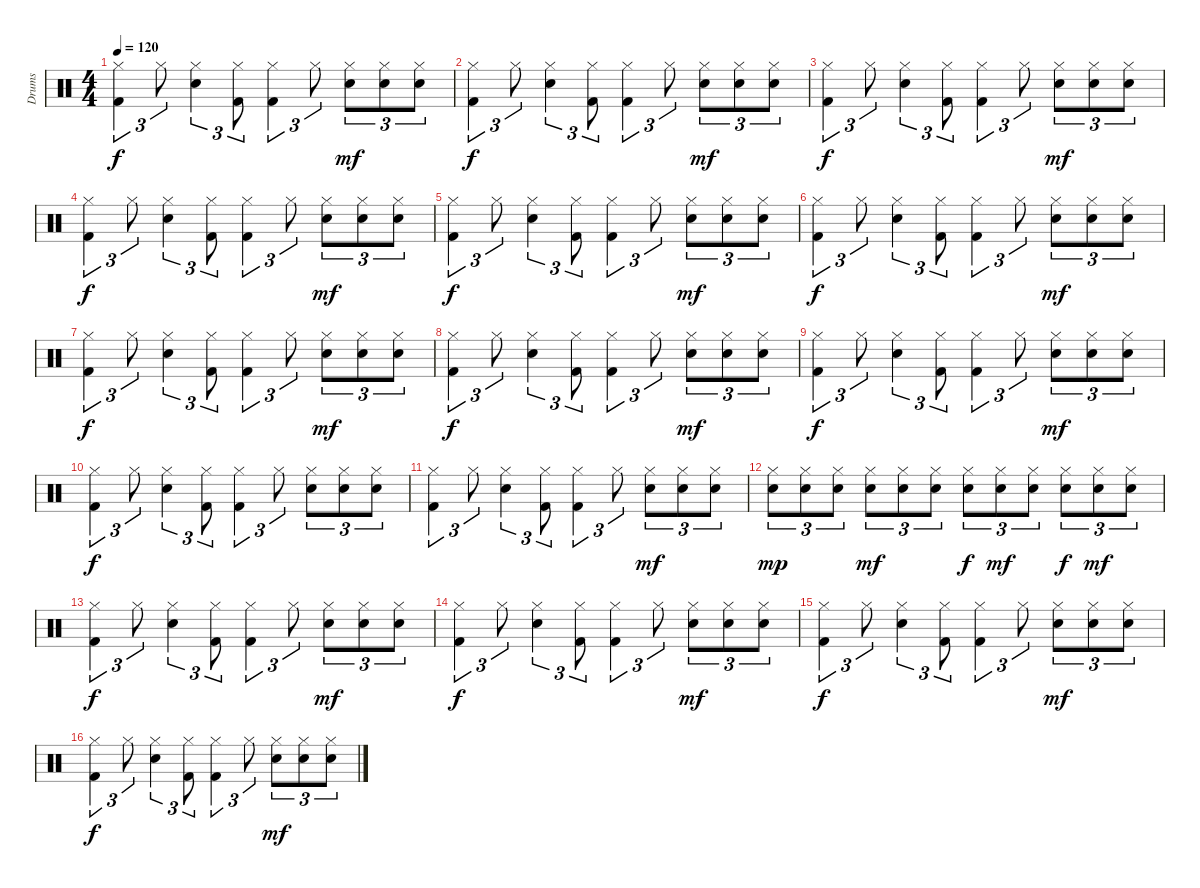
\track ("Drums" "Drums") {instrument percussion}
\staff {score}
\articulation defaults
\ts (4 4)
\tempo 120
\clef neutral
\ks c
("Hi-Hat (closed)" "Kick (hit) 2").4{tu (3 2) dy f} "Hi-Hat (closed)".8{tu (3 2)} ("Hi-Hat (closed)" "Electric Snare (hit)").4{tu (3 2)} ("Hi-Hat (closed)" "Kick (hit) 2").8{tu (3 2)} ("Hi-Hat (closed)" "Kick (hit) 2").4{tu (3 2)} "Hi-Hat (closed)".8{tu (3 2)} ("Hi-Hat (closed)" "Electric Snare (hit)").8{tu (3 2) dy mf} ("Hi-Hat (closed)" "Electric Snare (hit)").8{tu (3 2)} ("Hi-Hat (closed)" "Electric Snare (hit)").8{tu (3 2)} |
("Hi-Hat (closed)" "Kick (hit) 2").4{tu (3 2) dy f} "Hi-Hat (closed)".8{tu (3 2)} ("Hi-Hat (closed)" "Electric Snare (hit)").4{tu (3 2)} ("Hi-Hat (closed)" "Kick (hit) 2").8{tu (3 2)} ("Hi-Hat (closed)" "Kick (hit) 2").4{tu (3 2)} "Hi-Hat (closed)".8{tu (3 2)} ("Hi-Hat (closed)" "Electric Snare (hit)").8{tu (3 2) dy mf} ("Hi-Hat (closed)" "Electric Snare (hit)").8{tu (3 2)} ("Hi-Hat (closed)" "Electric Snare (hit)").8{tu (3 2)} |
("Hi-Hat (closed)" "Kick (hit) 2").4{tu (3 2) dy f} "Hi-Hat (closed)".8{tu (3 2)} ("Hi-Hat (closed)" "Electric Snare (hit)").4{tu (3 2)} ("Hi-Hat (closed)" "Kick (hit) 2").8{tu (3 2)} ("Hi-Hat (closed)" "Kick (hit) 2").4{tu (3 2)} "Hi-Hat (closed)".8{tu (3 2)} ("Hi-Hat (closed)" "Electric Snare (hit)").8{tu (3 2) dy mf} ("Hi-Hat (closed)" "Electric Snare (hit)").8{tu (3 2)} ("Hi-Hat (closed)" "Electric Snare (hit)").8{tu (3 2)} |
("Hi-Hat (closed)" "Kick (hit) 2").4{tu (3 2) dy f} "Hi-Hat (closed)".8{tu (3 2)} ("Hi-Hat (closed)" "Electric Snare (hit)").4{tu (3 2)} ("Hi-Hat (closed)" "Kick (hit) 2").8{tu (3 2)} ("Hi-Hat (closed)" "Kick (hit) 2").4{tu (3 2)} "Hi-Hat (closed)".8{tu (3 2)} ("Hi-Hat (closed)" "Electric Snare (hit)").8{tu (3 2) dy mf} ("Hi-Hat (closed)" "Electric Snare (hit)").8{tu (3 2)} ("Hi-Hat (closed)" "Electric Snare (hit)").8{tu (3 2)} |
("Hi-Hat (closed)" "Kick (hit) 2").4{tu (3 2) dy f} "Hi-Hat (closed)".8{tu (3 2)} ("Hi-Hat (closed)" "Electric Snare (hit)").4{tu (3 2)} ("Hi-Hat (closed)" "Kick (hit) 2").8{tu (3 2)} ("Hi-Hat (closed)" "Kick (hit) 2").4{tu (3 2)} "Hi-Hat (closed)".8{tu (3 2)} ("Hi-Hat (closed)" "Electric Snare (hit)").8{tu (3 2) dy mf} ("Hi-Hat (closed)" "Electric Snare (hit)").8{tu (3 2)} ("Hi-Hat (closed)" "Electric Snare (hit)").8{tu (3 2)} |
("Hi-Hat (closed)" "Kick (hit) 2").4{tu (3 2) dy f} "Hi-Hat (closed)".8{tu (3 2)} ("Hi-Hat (closed)" "Electric Snare (hit)").4{tu (3 2)} ("Hi-Hat (closed)" "Kick (hit) 2").8{tu (3 2)} ("Hi-Hat (closed)" "Kick (hit) 2").4{tu (3 2)} "Hi-Hat (closed)".8{tu (3 2)} ("Hi-Hat (closed)" "Electric Snare (hit)").8{tu (3 2) dy mf} ("Hi-Hat (closed)" "Electric Snare (hit)").8{tu (3 2)} ("Hi-Hat (closed)" "Electric Snare (hit)").8{tu (3 2)} |
("Hi-Hat (closed)" "Kick (hit) 2").4{tu (3 2) dy f} "Hi-Hat (closed)".8{tu (3 2)} ("Hi-Hat (closed)" "Electric Snare (hit)").4{tu (3 2)} ("Hi-Hat (closed)" "Kick (hit) 2").8{tu (3 2)} ("Hi-Hat (closed)" "Kick (hit) 2").4{tu (3 2)} "Hi-Hat (closed)".8{tu (3 2)} ("Hi-Hat (closed)" "Electric Snare (hit)").8{tu (3 2) dy mf} ("Hi-Hat (closed)" "Electric Snare (hit)").8{tu (3 2)} ("Hi-Hat (closed)" "Electric Snare (hit)").8{tu (3 2)} |
("Hi-Hat (closed)" "Kick (hit) 2").4{tu (3 2) dy f} "Hi-Hat (closed)".8{tu (3 2)} ("Hi-Hat (closed)" "Electric Snare (hit)").4{tu (3 2)} ("Hi-Hat (closed)" "Kick (hit) 2").8{tu (3 2)} ("Hi-Hat (closed)" "Kick (hit) 2").4{tu (3 2)} "Hi-Hat (closed)".8{tu (3 2)} ("Hi-Hat (closed)" "Electric Snare (hit)").8{tu (3 2) dy mf} ("Hi-Hat (closed)" "Electric Snare (hit)").8{tu (3 2)} ("Hi-Hat (closed)" "Electric Snare (hit)").8{tu (3 2)} |
("Hi-Hat (closed)" "Kick (hit) 2").4{tu (3 2) dy f} "Hi-Hat (closed)".8{tu (3 2)} ("Hi-Hat (closed)" "Electric Snare (hit)").4{tu (3 2)} ("Hi-Hat (closed)" "Kick (hit) 2").8{tu (3 2)} ("Hi-Hat (closed)" "Kick (hit) 2").4{tu (3 2)} "Hi-Hat (closed)".8{tu (3 2)} ("Hi-Hat (closed)" "Electric Snare (hit)").8{tu (3 2) dy mf} ("Hi-Hat (closed)" "Electric Snare (hit)").8{tu (3 2)} ("Hi-Hat (closed)" "Electric Snare (hit)").8{tu (3 2)} |
("Hi-Hat (closed)" "Kick (hit) 2").4{tu (3 2) dy f} "Hi-Hat (closed)".8{tu (3 2)} ("Hi-Hat (closed)" "Electric Snare (hit)").4{tu (3 2)} ("Hi-Hat (closed)" "Kick (hit) 2").8{tu (3 2)} ("Hi-Hat (closed)" "Kick (hit) 2").4{tu (3 2)} "Hi-Hat (closed)".8{tu (3 2)} ("Hi-Hat (closed)" "Electric Snare (hit)").8{tu (3 2)} ("Hi-Hat (closed)" "Electric Snare (hit)").8{tu (3 2)} ("Hi-Hat (closed)" "Electric Snare (hit)").8{tu (3 2)} |
("Hi-Hat (closed)" "Kick (hit) 2").4{tu (3 2)} "Hi-Hat (closed)".8{tu (3 2)} ("Hi-Hat (closed)" "Electric Snare (hit)").4{tu (3 2)} ("Hi-Hat (closed)" "Kick (hit) 2").8{tu (3 2)} ("Hi-Hat (closed)" "Kick (hit) 2").4{tu (3 2)} "Hi-Hat (closed)".8{tu (3 2)} ("Hi-Hat (closed)" "Electric Snare (hit)").8{tu (3 2) dy mf} ("Hi-Hat (closed)" "Electric Snare (hit)").8{tu (3 2)} ("Hi-Hat (closed)" "Electric Snare (hit)").8{tu (3 2)} |
("Hi-Hat (closed)" "Electric Snare (hit)").8{tu (3 2) dy mp} ("Hi-Hat (closed)" "Electric Snare (hit)").8{tu (3 2)} ("Hi-Hat (closed)" "Electric Snare (hit)").8{tu (3 2)} ("Hi-Hat (closed)" "Electric Snare (hit)").8{tu (3 2) dy mf} ("Hi-Hat (closed)" "Electric Snare (hit)").8{tu (3 2)} ("Hi-Hat (closed)" "Electric Snare (hit)").8{tu (3 2)} ("Hi-Hat (closed)" "Electric Snare (hit)").8{tu (3 2) dy f} ("Hi-Hat (closed)" "Electric Snare (hit)").8{tu (3 2) dy mf} ("Hi-Hat (closed)" "Electric Snare (hit)").8{tu (3 2)} ("Hi-Hat (closed)" "Electric Snare (hit)").8{tu (3 2) dy f} ("Hi-Hat (closed)" "Electric Snare (hit)").8{tu (3 2) dy mf} ("Hi-Hat (closed)" "Electric Snare (hit)").8{tu (3 2)} |
("Hi-Hat (closed)" "Kick (hit) 2").4{tu (3 2) dy f} "Hi-Hat (closed)".8{tu (3 2)} ("Hi-Hat (closed)" "Electric Snare (hit)").4{tu (3 2)} ("Hi-Hat (closed)" "Kick (hit) 2").8{tu (3 2)} ("Hi-Hat (closed)" "Kick (hit) 2").4{tu (3 2)} "Hi-Hat (closed)".8{tu (3 2)} ("Hi-Hat (closed)" "Electric Snare (hit)").8{tu (3 2) dy mf} ("Hi-Hat (closed)" "Electric Snare (hit)").8{tu (3 2)} ("Hi-Hat (closed)" "Electric Snare (hit)").8{tu (3 2)} |
("Hi-Hat (closed)" "Kick (hit) 2").4{tu (3 2) dy f} "Hi-Hat (closed)".8{tu (3 2)} ("Hi-Hat (closed)" "Electric Snare (hit)").4{tu (3 2)} ("Hi-Hat (closed)" "Kick (hit) 2").8{tu (3 2)} ("Hi-Hat (closed)" "Kick (hit) 2").4{tu (3 2)} "Hi-Hat (closed)".8{tu (3 2)} ("Hi-Hat (closed)" "Electric Snare (hit)").8{tu (3 2) dy mf} ("Hi-Hat (closed)" "Electric Snare (hit)").8{tu (3 2)} ("Hi-Hat (closed)" "Electric Snare (hit)").8{tu (3 2)} |
("Hi-Hat (closed)" "Kick (hit) 2").4{tu (3 2) dy f} "Hi-Hat (closed)".8{tu (3 2)} ("Hi-Hat (closed)" "Electric Snare (hit)").4{tu (3 2)} ("Hi-Hat (closed)" "Kick (hit) 2").8{tu (3 2)} ("Hi-Hat (closed)" "Kick (hit) 2").4{tu (3 2)} "Hi-Hat (closed)".8{tu (3 2)} ("Hi-Hat (closed)" "Electric Snare (hit)").8{tu (3 2) dy mf} ("Hi-Hat (closed)" "Electric Snare (hit)").8{tu (3 2)} ("Hi-Hat (closed)" "Electric Snare (hit)").8{tu (3 2)} |
("Hi-Hat (closed)" "Kick (hit) 2").4{tu (3 2) dy f} "Hi-Hat (closed)".8{tu (3 2)} ("Hi-Hat (closed)" "Electric Snare (hit)").4{tu (3 2)} ("Hi-Hat (closed)" "Kick (hit) 2").8{tu (3 2)} ("Hi-Hat (closed)" "Kick (hit) 2").4{tu (3 2)} "Hi-Hat (closed)".8{tu (3 2)} ("Hi-Hat (closed)" "Electric Snare (hit)").8{tu (3 2) dy mf} ("Hi-Hat (closed)" "Electric Snare (hit)").8{tu (3 2)} ("Hi-Hat (closed)" "Electric Snare (hit)").8{tu (3 2)}
